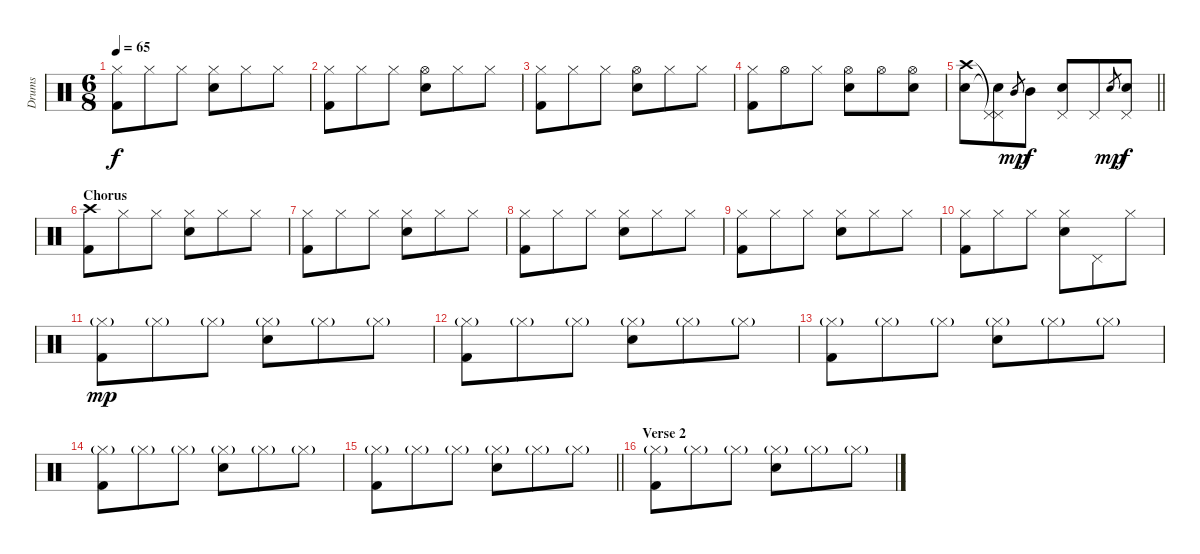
\track ("Drums" "Drums") {instrument percussion}
\staff {score}
\articulation defaults
\ts (6 8)
\tempo 65
\clef neutral
\ks c
("Hi-Hat (closed)" "Kick (hit) 2").8{dy f} "Hi-Hat (closed)".8 "Hi-Hat (closed)".8 ("Hi-Hat (closed)" "Snare (hit) 2").8 "Hi-Hat (closed)".8 "Hi-Hat (closed)".8 |
("Hi-Hat (closed)" "Kick (hit) 2").8 "Hi-Hat (closed)".8 "Hi-Hat (closed)".8 ("Hi-Hat (open)" "Snare (hit) 2").8 "Hi-Hat (closed)".8 "Hi-Hat (closed)".8 |
("Hi-Hat (closed)" "Kick (hit) 2").8 "Hi-Hat (closed)".8 "Hi-Hat (closed)".8 ("Hi-Hat (open)" "Snare (hit) 2").8 "Hi-Hat (closed)".8 "Hi-Hat (closed)".8 |
("Hi-Hat (closed)" "Kick (hit) 2").8 "Hi-Hat (open)".8 "Hi-Hat (closed)".8 ("Hi-Hat (open)" "Snare (hit) 2").8 "Hi-Hat (open)".8 ("Hi-Hat (open)" "Snare (hit) 2").8 |
\barLineRight lightlight
("Crash high (hit)" "Snare (hit) 2").8 ("Pedal Hi-Hat (hit)"{t} "Snare (hit)"{t} "Pedal Hi-Hat (hit)").8 "Mid Tom (hit)".8{gr dy mp} "Mid Tom (hit)".8{dy f} ("Snare (hit) 2" "Pedal Hi-Hat (hit)").8 "Pedal Hi-Hat (hit)".8 "Snare (hit) 2".8{gr dy mp} ("Snare (hit) 2" "Pedal Hi-Hat (hit)").8{dy f} |
\section ("" "Chorus")
("Crash high (hit)" "Kick (hit) 2").8 "Hi-Hat (closed)".8 "Hi-Hat (closed)".8 ("Hi-Hat (closed)" "Snare (hit) 2").8 "Hi-Hat (closed)".8 "Hi-Hat (closed)".8 |
("Hi-Hat (closed)" "Kick (hit) 2").8 "Hi-Hat (closed)".8 "Hi-Hat (closed)".8 ("Hi-Hat (closed)" "Snare (hit) 2").8 "Hi-Hat (closed)".8 "Hi-Hat (closed)".8 |
("Hi-Hat (closed)" "Kick (hit) 2").8 "Hi-Hat (closed)".8 "Hi-Hat (closed)".8 ("Hi-Hat (closed)" "Snare (hit) 2").8 "Hi-Hat (closed)".8 "Hi-Hat (closed)".8 |
("Hi-Hat (closed)" "Kick (hit) 2").8 "Hi-Hat (closed)".8 "Hi-Hat (closed)".8 ("Hi-Hat (closed)" "Snare (hit) 2").8 "Hi-Hat (closed)".8 "Hi-Hat (closed)".8 |
("Hi-Hat (closed)" "Kick (hit) 2").8 "Hi-Hat (closed)".8 "Hi-Hat (closed)".8 ("Hi-Hat (closed)" "Snare (hit) 2").8 "Pedal Hi-Hat (hit)".8 "Hi-Hat (closed)".8 |
("Hi-Hat (closed)"{g} "Kick (hit) 2").8{dy mp} "Hi-Hat (closed)"{g}.8 "Hi-Hat (closed)"{g}.8 ("Hi-Hat (closed)"{g} "Snare (hit) 2").8 "Hi-Hat (closed)"{g}.8 "Hi-Hat (closed)"{g}.8 |
("Hi-Hat (closed)"{g} "Kick (hit) 2").8 "Hi-Hat (closed)"{g}.8 "Hi-Hat (closed)"{g}.8 ("Hi-Hat (closed)"{g} "Snare (hit) 2").8 "Hi-Hat (closed)"{g}.8 "Hi-Hat (closed)"{g}.8 |
("Hi-Hat (closed)"{g} "Kick (hit) 2").8 "Hi-Hat (closed)"{g}.8 "Hi-Hat (closed)"{g}.8 ("Hi-Hat (closed)"{g} "Snare (hit) 2").8 "Hi-Hat (closed)"{g}.8 "Hi-Hat (closed)"{g}.8 |
("Hi-Hat (closed)"{g} "Kick (hit) 2").8 "Hi-Hat (closed)"{g}.8 "Hi-Hat (closed)"{g}.8 ("Hi-Hat (closed)"{g} "Snare (hit) 2").8 "Hi-Hat (closed)"{g}.8 "Hi-Hat (closed)"{g}.8 |
\barLineRight lightlight
("Hi-Hat (closed)"{g} "Kick (hit) 2").8 "Hi-Hat (closed)"{g}.8 "Hi-Hat (closed)"{g}.8 ("Hi-Hat (closed)"{g} "Snare (hit) 2").8 "Hi-Hat (closed)"{g}.8 "Hi-Hat (closed)"{g}.8 |
\section ("" "Verse 2")
("Hi-Hat (closed)"{g} "Kick (hit) 2").8 "Hi-Hat (closed)"{g}.8 "Hi-Hat (closed)"{g}.8 ("Hi-Hat (closed)"{g} "Snare (hit) 2").8 "Hi-Hat (closed)"{g}.8 "Hi-Hat (closed)"{g}.8
